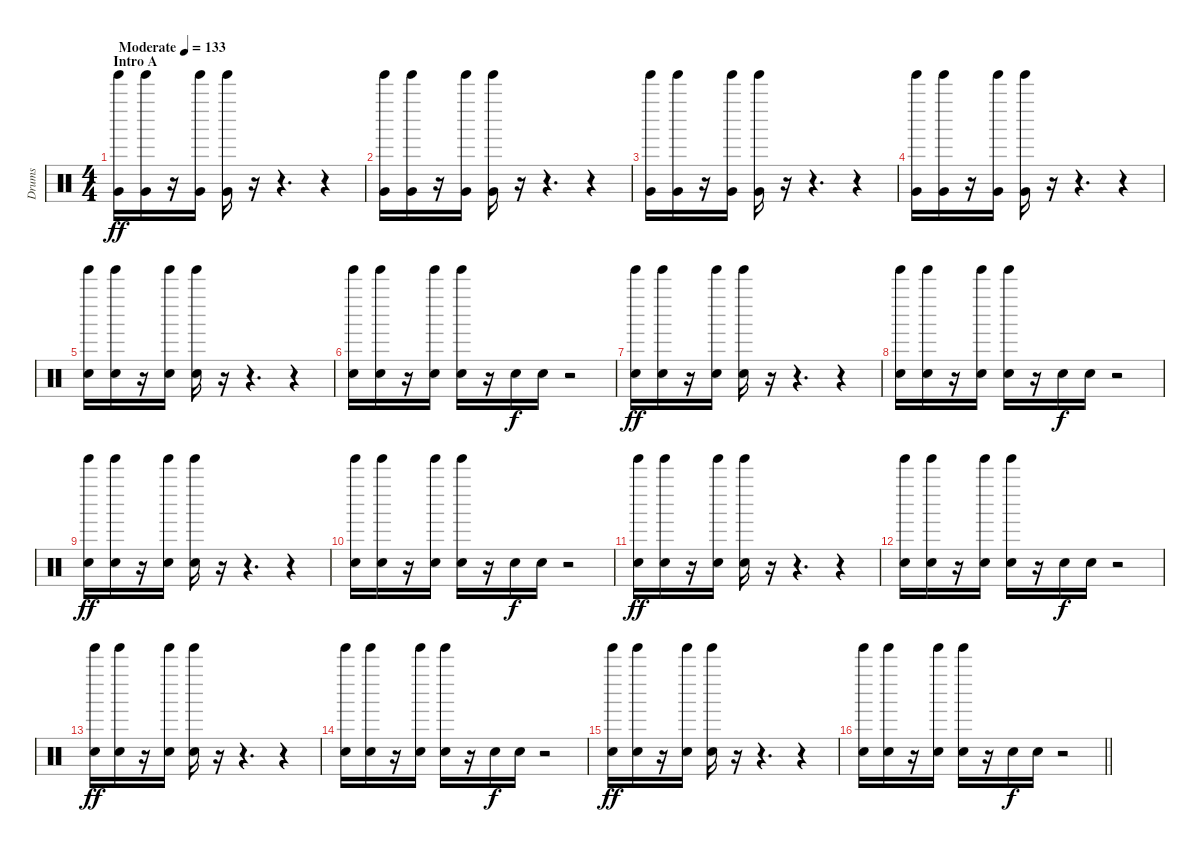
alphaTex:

\track ("Drums" "Drums") {instrument percussion}
\staff {score}
\articulation defaults
\ts (4 4)
\section ("" "Intro A")
\tempo (133 "Moderate")
\clef neutral
\ks c
("Tinkle Bell (hit)" "Very Low Tom (hit)").16{dy ff} ("Tinkle Bell (hit)" "Very Low Tom (hit)").16 r.16 ("Tinkle Bell (hit)" "Very Low Tom (hit)").16 ("Tinkle Bell (hit)" "Very Low Tom (hit)").16 r.16 r.4{d} r.4 |
("Tinkle Bell (hit)" "Very Low Tom (hit)").16 ("Tinkle Bell (hit)" "Very Low Tom (hit)").16 r.16 ("Tinkle Bell (hit)" "Very Low Tom (hit)").16 ("Tinkle Bell (hit)" "Very Low Tom (hit)").16 r.16 r.4{d} r.4 |
("Tinkle Bell (hit)" "Very Low Tom (hit)").16 ("Tinkle Bell (hit)" "Very Low Tom (hit)").16 r.16 ("Tinkle Bell (hit)" "Very Low Tom (hit)").16 ("Tinkle Bell (hit)" "Very Low Tom (hit)").16 r.16 r.4{d} r.4 |
("Tinkle Bell (hit)" "Very Low Tom (hit)").16 ("Tinkle Bell (hit)" "Very Low Tom (hit)").16 r.16 ("Tinkle Bell (hit)" "Very Low Tom (hit)").16 ("Tinkle Bell (hit)" "Very Low Tom (hit)").16 r.16 r.4{d} r.4 |
("Tinkle Bell (hit)" "Snare (hit) 2").16 ("Tinkle Bell (hit)" "Snare (hit) 2").16 r.16 ("Tinkle Bell (hit)" "Snare (hit) 2").16 ("Tinkle Bell (hit)" "Snare (hit) 2").16 r.16 r.4{d} r.4 |
("Tinkle Bell (hit)" "Snare (hit) 2").16 ("Tinkle Bell (hit)" "Snare (hit) 2").16 r.16 ("Tinkle Bell (hit)" "Snare (hit) 2").16 ("Tinkle Bell (hit)" "Snare (hit) 2").16 r.16 "Snare (hit) 2".16{dy f} "Snare (hit) 2".16 r.2 |
("Tinkle Bell (hit)" "Snare (hit) 2").16{dy ff} ("Tinkle Bell (hit)" "Snare (hit) 2").16 r.16 ("Tinkle Bell (hit)" "Snare (hit) 2").16 ("Tinkle Bell (hit)" "Snare (hit) 2").16 r.16 r.4{d} r.4 |
("Tinkle Bell (hit)" "Snare (hit) 2").16 ("Tinkle Bell (hit)" "Snare (hit) 2").16 r.16 ("Tinkle Bell (hit)" "Snare (hit) 2").16 ("Tinkle Bell (hit)" "Snare (hit) 2").16 r.16 "Snare (hit) 2".16{dy f} "Snare (hit) 2".16 r.2 |
("Tinkle Bell (hit)" "Snare (hit) 2").16{dy ff} ("Tinkle Bell (hit)" "Snare (hit) 2").16 r.16 ("Tinkle Bell (hit)" "Snare (hit) 2").16 ("Tinkle Bell (hit)" "Snare (hit) 2").16 r.16 r.4{d} r.4 |
("Tinkle Bell (hit)" "Snare (hit) 2").16 ("Tinkle Bell (hit)" "Snare (hit) 2").16 r.16 ("Tinkle Bell (hit)" "Snare (hit) 2").16 ("Tinkle Bell (hit)" "Snare (hit) 2").16 r.16 "Snare (hit) 2".16{dy f} "Snare (hit) 2".16 r.2 |
("Tinkle Bell (hit)" "Snare (hit) 2").16{dy ff} ("Tinkle Bell (hit)" "Snare (hit) 2").16 r.16 ("Tinkle Bell (hit)" "Snare (hit) 2").16 ("Tinkle Bell (hit)" "Snare (hit) 2").16 r.16 r.4{d} r.4 |
("Tinkle Bell (hit)" "Snare (hit) 2").16 ("Tinkle Bell (hit)" "Snare (hit) 2").16 r.16 ("Tinkle Bell (hit)" "Snare (hit) 2").16 ("Tinkle Bell (hit)" "Snare (hit) 2").16 r.16 "Snare (hit) 2".16{dy f} "Snare (hit) 2".16 r.2 |
("Tinkle Bell (hit)" "Snare (hit) 2").16{dy ff} ("Tinkle Bell (hit)" "Snare (hit) 2").16 r.16 ("Tinkle Bell (hit)" "Snare (hit) 2").16 ("Tinkle Bell (hit)" "Snare (hit) 2").16 r.16 r.4{d} r.4 |
("Tinkle Bell (hit)" "Snare (hit) 2").16 ("Tinkle Bell (hit)" "Snare (hit) 2").16 r.16 ("Tinkle Bell (hit)" "Snare (hit) 2").16 ("Tinkle Bell (hit)" "Snare (hit) 2").16 r.16 "Snare (hit) 2".16{dy f} "Snare (hit) 2".16 r.2 |
("Tinkle Bell (hit)" "Snare (hit) 2").16{dy ff} ("Tinkle Bell (hit)" "Snare (hit) 2").16 r.16 ("Tinkle Bell (hit)" "Snare (hit) 2").16 ("Tinkle Bell (hit)" "Snare (hit) 2").16 r.16 r.4{d} r.4 |
\barLineRight lightlight
("Tinkle Bell (hit)" "Snare (hit) 2").16 ("Tinkle Bell (hit)" "Snare (hit) 2").16 r.16 ("Tinkle Bell (hit)" "Snare (hit) 2").16 ("Tinkle Bell (hit)" "Snare (hit) 2").16 r.16 "Snare (hit) 2".16{dy f} "Snare (hit) 2".16 r.2
